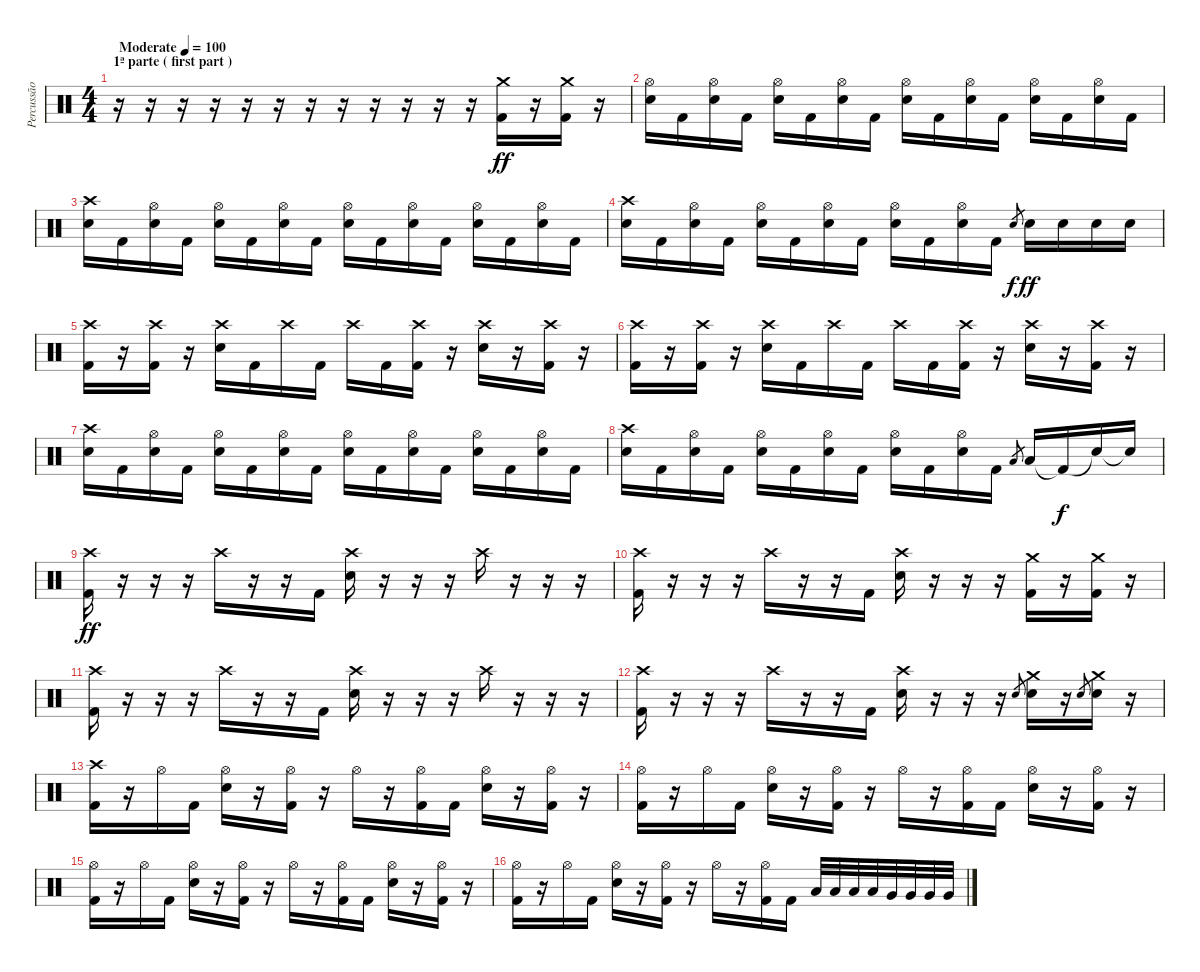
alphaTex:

\track ("Percussão" "Percussão") {instrument percussion}
\staff {score}
\articulation defaults
\ts (4 4)
\section ("" "1ª parte ( first part )")
\tempo (100 "Moderate")
\clef neutral
\ks c
r.16{dy ff} r.16 r.16 r.16 r.16 r.16 r.16 r.16 r.16 r.16 r.16 r.16 ("Crash medium (hit)" "Kick (hit) 2").16 r.16 ("Crash medium (hit)" "Kick (hit) 2").16 r.16 |
("Hi-Hat (open)" "Electric Snare (hit)").16 "Kick (hit) 2".16 ("Hi-Hat (open)" "Electric Snare (hit)").16 "Kick (hit) 2".16 ("Hi-Hat (open)" "Electric Snare (hit)").16 "Kick (hit) 2".16 ("Hi-Hat (open)" "Electric Snare (hit)").16 "Kick (hit) 2".16 ("Hi-Hat (open)" "Electric Snare (hit)").16 "Kick (hit) 2".16 ("Hi-Hat (open)" "Electric Snare (hit)").16 "Kick (hit) 2".16 ("Hi-Hat (open)" "Electric Snare (hit)").16 "Kick (hit) 2".16 ("Hi-Hat (open)" "Electric Snare (hit)").16 "Kick (hit) 2".16 |
("Crash high (hit)" "Electric Snare (hit)").16 "Kick (hit) 2".16 ("Hi-Hat (open)" "Electric Snare (hit)").16 "Kick (hit) 2".16 ("Hi-Hat (open)" "Electric Snare (hit)").16 "Kick (hit) 2".16 ("Hi-Hat (open)" "Electric Snare (hit)").16 "Kick (hit) 2".16 ("Hi-Hat (open)" "Electric Snare (hit)").16 "Kick (hit) 2".16 ("Hi-Hat (open)" "Electric Snare (hit)").16 "Kick (hit) 2".16 ("Hi-Hat (open)" "Electric Snare (hit)").16 "Kick (hit) 2".16 ("Hi-Hat (open)" "Electric Snare (hit)").16 "Kick (hit) 2".16 |
("Crash high (hit)" "Electric Snare (hit)").16 "Kick (hit) 2".16 ("Hi-Hat (open)" "Electric Snare (hit)").16 "Kick (hit) 2".16 ("Hi-Hat (open)" "Electric Snare (hit)").16 "Kick (hit) 2".16 ("Hi-Hat (open)" "Electric Snare (hit)").16 "Kick (hit) 2".16 ("Hi-Hat (open)" "Electric Snare (hit)").16 "Kick (hit) 2".16 ("Hi-Hat (open)" "Electric Snare (hit)").16 "Kick (hit) 2".16 "Electric Snare (hit)".8{gr dy f} "Electric Snare (hit)".16{dy ff} "Electric Snare (hit)".16 "Electric Snare (hit)".16 "Electric Snare (hit)".16 |
("Crash high (hit)" "Kick (hit) 2").16 r.16 ("Crash high (hit)" "Kick (hit) 2").16 r.16 ("Crash high (hit)" "Electric Snare (hit)").16 "Kick (hit) 2".16 "Crash high (hit)".16 "Kick (hit) 2".16 "Crash high (hit)".16 "Kick (hit) 2".16 ("Crash high (hit)" "Kick (hit) 2").16 r.16 ("Crash high (hit)" "Electric Snare (hit)").16 r.16 ("Crash high (hit)" "Kick (hit) 2").16 r.16 |
("Crash high (hit)" "Kick (hit) 2").16 r.16 ("Crash high (hit)" "Kick (hit) 2").16 r.16 ("Crash high (hit)" "Electric Snare (hit)").16 "Kick (hit) 2".16 "Crash high (hit)".16 "Kick (hit) 2".16 "Crash high (hit)".16 "Kick (hit) 2".16 ("Crash high (hit)" "Kick (hit) 2").16 r.16 ("Crash high (hit)" "Electric Snare (hit)").16 r.16 ("Crash high (hit)" "Kick (hit) 2").16 r.16 |
("Crash high (hit)" "Electric Snare (hit)").16 "Kick (hit) 2".16 ("Hi-Hat (open)" "Electric Snare (hit)").16 "Kick (hit) 2".16 ("Hi-Hat (open)" "Electric Snare (hit)").16 "Kick (hit) 2".16 ("Hi-Hat (open)" "Electric Snare (hit)").16 "Kick (hit) 2".16 ("Hi-Hat (open)" "Electric Snare (hit)").16 "Kick (hit) 2".16 ("Hi-Hat (open)" "Electric Snare (hit)").16 "Kick (hit) 2".16 ("Hi-Hat (open)" "Electric Snare (hit)").16 "Kick (hit) 2".16 ("Hi-Hat (open)" "Electric Snare (hit)").16 "Kick (hit) 2".16 |
("Crash high (hit)" "Electric Snare (hit)").16 "Kick (hit) 2".16 ("Hi-Hat (open)" "Electric Snare (hit)").16 "Kick (hit) 2".16 ("Hi-Hat (open)" "Electric Snare (hit)").16 "Kick (hit) 2".16 ("Hi-Hat (open)" "Electric Snare (hit)").16 "Kick (hit) 2".16 ("Hi-Hat (open)" "Electric Snare (hit)").16 "Kick (hit) 2".16 ("Hi-Hat (open)" "Electric Snare (hit)").16 "Kick (hit) 2".16 "Low Tom (hit)".8{gr} "Low Tom (hit)".16 "Kick (hit) 2"{t}.16{dy f} "Electric Snare (hit)"{t}.16 "Snare (hit)"{t}.16 |
("Crash high (hit)" "Kick (hit) 2").16{dy ff} r.16 r.16 r.16 "Crash high (hit)".16 r.16 r.16 "Kick (hit) 2".16 ("Crash high (hit)" "Electric Snare (hit)").16 r.16 r.16 r.16 "Crash high (hit)".16 r.16 r.16 r.16 |
("Crash high (hit)" "Kick (hit) 2").16 r.16 r.16 r.16 "Crash high (hit)".16 r.16 r.16 "Kick (hit) 2".16 ("Crash high (hit)" "Electric Snare (hit)").16 r.16 r.16 r.16 ("Crash medium (hit)" "Kick (hit) 2").16 r.16 ("Crash medium (hit)" "Kick (hit) 2").16 r.16 |
("Crash high (hit)" "Kick (hit) 2").16 r.16 r.16 r.16 "Crash high (hit)".16 r.16 r.16 "Kick (hit) 2".16 ("Crash high (hit)" "Electric Snare (hit)").16 r.16 r.16 r.16 "Crash high (hit)".16 r.16 r.16 r.16 |
("Crash high (hit)" "Kick (hit) 2").16 r.16 r.16 r.16 "Crash high (hit)".16 r.16 r.16 "Kick (hit) 2".16 ("Crash high (hit)" "Electric Snare (hit)").16 r.16 r.16 r.16 "Electric Snare (hit)".8{gr} ("Crash medium (hit)" "Electric Snare (hit)").16 r.16 "Electric Snare (hit)".8{gr} ("Crash medium (hit)" "Electric Snare (hit)").16 r.16 |
("Crash high (hit)" "Kick (hit) 2").16 r.16 "Hi-Hat (open)".16 "Kick (hit) 2".16 ("Hi-Hat (open)" "Electric Snare (hit)").16 r.16 ("Hi-Hat (open)" "Kick (hit) 2").16 r.16 "Hi-Hat (open)".16 r.16 ("Hi-Hat (open)" "Kick (hit) 2").16 "Kick (hit) 2".16 ("Hi-Hat (open)" "Electric Snare (hit)").16 r.16 ("Hi-Hat (open)" "Kick (hit) 2").16 r.16 |
("Hi-Hat (open)" "Kick (hit) 2").16 r.16 "Hi-Hat (open)".16 "Kick (hit) 2".16 ("Hi-Hat (open)" "Electric Snare (hit)").16 r.16 ("Hi-Hat (open)" "Kick (hit) 2").16 r.16 "Hi-Hat (open)".16 r.16 ("Hi-Hat (open)" "Kick (hit) 2").16 "Kick (hit) 2".16 ("Hi-Hat (open)" "Electric Snare (hit)").16 r.16 ("Hi-Hat (open)" "Kick (hit) 2").16 r.16 |
("Hi-Hat (open)" "Kick (hit) 2").16 r.16 "Hi-Hat (open)".16 "Kick (hit) 2".16 ("Hi-Hat (open)" "Electric Snare (hit)").16 r.16 ("Hi-Hat (open)" "Kick (hit) 2").16 r.16 "Hi-Hat (open)".16 r.16 ("Hi-Hat (open)" "Kick (hit) 2").16 "Kick (hit) 2".16 ("Hi-Hat (open)" "Electric Snare (hit)").16 r.16 ("Hi-Hat (open)" "Kick (hit) 2").16 r.16 |
("Hi-Hat (open)" "Kick (hit) 2").16 r.16 "Hi-Hat (open)".16 "Kick (hit) 2".16 ("Hi-Hat (open)" "Electric Snare (hit)").16 r.16 ("Hi-Hat (open)" "Kick (hit) 2").16 r.16 "Hi-Hat (open)".16 r.16 ("Hi-Hat (open)" "Kick (hit) 2").16 "Kick (hit) 2".16 "Low Tom (hit)".32 "Low Tom (hit)".32 "Low Tom (hit)".32 "Low Tom (hit)".32 "Very Low Tom (hit)".32 "Very Low Tom (hit)".32 "Very Low Tom (hit)".32 "Very Low Tom (hit)".32
